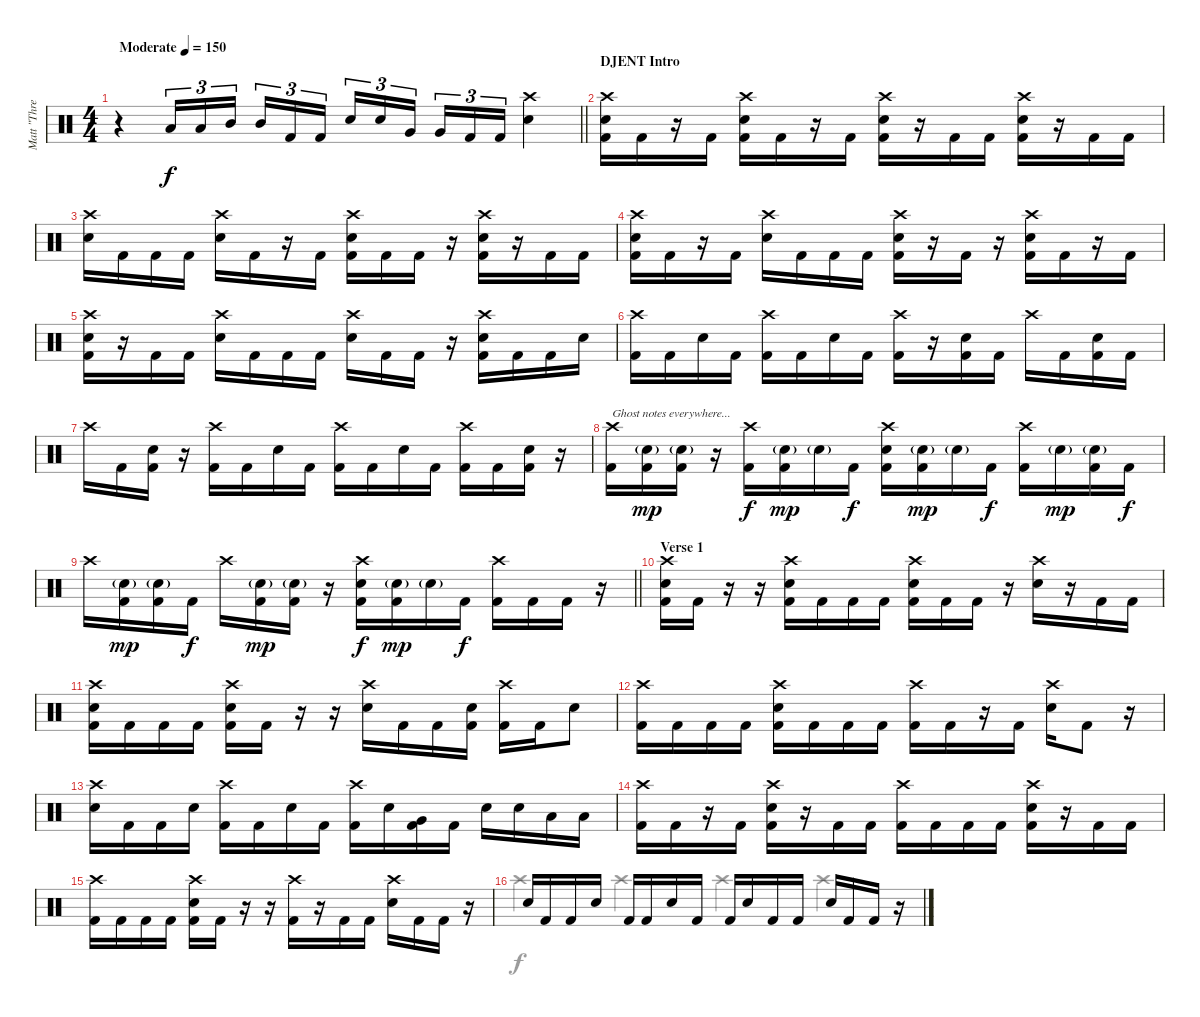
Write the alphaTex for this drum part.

\track ("Matt \"Three Cymbals/Swing\" Halpern" "Matt \"Thre") {instrument percussion}
\staff {score}
\articulation defaults
\voice
\ts (4 4)
\tempo (150 "Moderate")
\clef neutral
\barLineRight lightlight
\ks c
r.4{dy f} "Low Tom (hit)".16{tu (3 2)} "Low Tom (hit)".16{tu (3 2)} "Mid Tom (hit)".16{tu (3 2) beam splitsecondary} "Mid Tom (hit)".16{tu (3 2)} "Kick (hit) 2".16{tu (3 2)} "Kick (hit) 2".16{tu (3 2)} "Snare (hit) 2".16{tu (3 2)} "Snare (hit) 2".16{tu (3 2)} "Very Low Tom (hit)".16{tu (3 2) beam splitsecondary} "Very Low Tom (hit)".16{tu (3 2)} "Kick (hit) 2".16{tu (3 2)} "Kick (hit) 2".16{tu (3 2)} ("Crash high (hit)" "Snare (hit) 2").4 |
\section ("" "DJENT Intro")
("Crash high (hit)" "Snare (hit) 2" "Kick (hit) 2").16 "Kick (hit) 2".16 r.16 "Kick (hit) 2".16 ("Crash high (hit)" "Snare (hit) 2" "Kick (hit) 2").16 "Kick (hit) 2".16 r.16 "Kick (hit) 2".16 ("Crash high (hit)" "Snare (hit) 2" "Kick (hit) 2").16 r.16 "Kick (hit) 2".16 "Kick (hit) 2".16 ("Crash high (hit)" "Snare (hit) 2" "Kick (hit) 2").16 r.16 "Kick (hit) 2".16 "Kick (hit) 2".16 |
("Crash high (hit)" "Snare (hit) 2").16 "Kick (hit) 2".16 "Kick (hit) 2".16 "Kick (hit) 2".16 ("Crash high (hit)" "Snare (hit) 2").16 "Kick (hit) 2".16 r.16 "Kick (hit) 2".16 ("Crash high (hit)" "Snare (hit) 2" "Kick (hit) 2").16 "Kick (hit) 2".16 "Kick (hit) 2".16 r.16 ("Crash high (hit)" "Snare (hit) 2" "Kick (hit) 2").16 r.16 "Kick (hit) 2".16 "Kick (hit) 2".16 |
("Crash high (hit)" "Snare (hit) 2" "Kick (hit) 2").16 "Kick (hit) 2".16 r.16 "Kick (hit) 2".16 ("Crash high (hit)" "Snare (hit) 2").16 "Kick (hit) 2".16 "Kick (hit) 2".16 "Kick (hit) 2".16 ("Crash high (hit)" "Snare (hit) 2" "Kick (hit) 2").16 r.16 "Kick (hit) 2".16 r.16 ("Crash high (hit)" "Snare (hit) 2" "Kick (hit) 2").16 "Kick (hit) 2".16 r.16 "Kick (hit) 2".16 |
("Crash high (hit)" "Snare (hit) 2" "Kick (hit) 2").16 r.16 "Kick (hit) 2".16 "Kick (hit) 2".16 ("Crash high (hit)" "Snare (hit) 2").16 "Kick (hit) 2".16 "Kick (hit) 2".16 "Kick (hit) 2".16 ("Crash high (hit)" "Snare (hit) 2").16 "Kick (hit) 2".16 "Kick (hit) 2".16 r.16 ("Crash high (hit)" "Snare (hit) 2" "Kick (hit) 2").16 "Kick (hit) 2".16 "Kick (hit) 2".16 "Snare (hit) 2".16 |
("Crash high (hit)" "Kick (hit) 2").16 "Kick (hit) 2".16 "Snare (hit) 2".16 "Kick (hit) 2".16 ("Crash high (hit)" "Kick (hit) 2").16 "Kick (hit) 2".16 "Snare (hit) 2".16 "Kick (hit) 2".16 ("Crash high (hit)" "Kick (hit) 2").16 r.16 ("Snare (hit) 2" "Kick (hit) 2").16 "Kick (hit) 2".16 "Crash high (hit)".16 "Kick (hit) 2".16 ("Snare (hit) 2" "Kick (hit) 2").16 "Kick (hit) 2".16 |
"Crash high (hit)".16 "Kick (hit) 2".16 ("Snare (hit) 2" "Kick (hit) 2").16 r.16 ("Crash high (hit)" "Kick (hit) 2").16 "Kick (hit) 2".16 "Snare (hit) 2".16 "Kick (hit) 2".16 ("Crash high (hit)" "Kick (hit) 2").16 "Kick (hit) 2".16 "Snare (hit) 2".16 "Kick (hit) 2".16 ("Crash high (hit)" "Kick (hit) 2").16 "Kick (hit) 2".16 ("Snare (hit) 2" "Kick (hit) 2").16 r.16 |
("Crash high (hit)" "Kick (hit) 2").16{txt "Ghost notes everywhere..."} ("Snare (hit) 2"{g} "Kick (hit) 2").16{dy mp} ("Snare (hit) 2"{g} "Kick (hit) 2").16 r.16 ("Crash high (hit)" "Kick (hit) 2").16{dy f} ("Snare (hit) 2"{g} "Kick (hit) 2").16{dy mp} "Snare (hit) 2"{g}.16 "Kick (hit) 2".16{dy f} ("Crash high (hit)" "Snare (hit) 2" "Kick (hit) 2").16 ("Snare (hit) 2"{g} "Kick (hit) 2").16{dy mp} "Snare (hit) 2"{g}.16 "Kick (hit) 2".16{dy f} ("Crash high (hit)" "Kick (hit) 2").16 "Snare (hit) 2"{g}.16{dy mp} ("Snare (hit) 2"{g} "Kick (hit) 2").16 "Kick (hit) 2".16{dy f} |
\barLineRight lightlight "Crash high (hit)".16
("Snare (hit) 2"{g} "Kick (hit) 2").16{dy mp} ("Snare (hit) 2"{g} "Kick (hit) 2").16 "Kick (hit) 2".16{dy f} "Crash high (hit)".16 ("Snare (hit) 2"{g} "Kick (hit) 2").16{dy mp} ("Snare (hit) 2"{g} "Kick (hit) 2").16 r.16 ("Crash high (hit)" "Snare (hit) 2" "Kick (hit) 2").16{dy f} ("Snare (hit) 2"{g} "Kick (hit) 2").16{dy mp} "Snare (hit) 2"{g}.16 "Kick (hit) 2".16{dy f} ("Crash high (hit)" "Kick (hit) 2").16 "Kick (hit) 2".16 "Kick (hit) 2".16 r.16 |
\section ("" "Verse 1")
("Crash high (hit)" "Snare (hit) 2" "Kick (hit) 2").16 "Kick (hit) 2".16 r.16 r.16 ("Crash high (hit)" "Snare (hit) 2" "Kick (hit) 2").16 "Kick (hit) 2".16 "Kick (hit) 2".16 "Kick (hit) 2".16 ("Crash high (hit)" "Snare (hit) 2" "Kick (hit) 2").16 "Kick (hit) 2".16 "Kick (hit) 2".16 r.16 ("Crash high (hit)" "Snare (hit) 2").16 r.16 "Kick (hit) 2".16 "Kick (hit) 2".16 |
("Crash high (hit)" "Snare (hit) 2" "Kick (hit) 2").16 "Kick (hit) 2".16 "Kick (hit) 2".16 "Kick (hit) 2".16 ("Crash high (hit)" "Snare (hit) 2" "Kick (hit) 2").16 "Kick (hit) 2".16 r.16 r.16 ("Crash high (hit)" "Snare (hit) 2").16 "Kick (hit) 2".16 "Kick (hit) 2".16 ("Snare (hit) 2" "Kick (hit) 2").16 ("Crash high (hit)" "Kick (hit) 2").16 "Kick (hit) 2".16 "Snare (hit) 2".8 |
("Crash high (hit)" "Kick (hit) 2").16 "Kick (hit) 2".16 "Kick (hit) 2".16 "Kick (hit) 2".16 ("Crash high (hit)" "Snare (hit) 2" "Kick (hit) 2").16 "Kick (hit) 2".16 "Kick (hit) 2".16 "Kick (hit) 2".16 ("Crash high (hit)" "Kick (hit) 2").16 "Kick (hit) 2".16 r.16 "Kick (hit) 2".16 ("Crash high (hit)" "Snare (hit) 2").16 "Kick (hit) 2".8 r.16 |
("Crash high (hit)" "Snare (hit) 2").16 "Kick (hit) 2".16 "Kick (hit) 2".16 "Snare (hit) 2".16 ("Crash high (hit)" "Kick (hit) 2").16 "Kick (hit) 2".16 "Snare (hit) 2".16 "Kick (hit) 2".16 ("Crash high (hit)" "Kick (hit) 2").16 "Snare (hit) 2".16 ("Very Low Tom (hit)" "Kick (hit) 2").16 "Kick (hit) 2".16 "Snare (hit) 2".16 "Snare (hit) 2".16 "Low Floor Tom (hit)".16 "Low Floor Tom (hit)".16 |
("Crash high (hit)" "Kick (hit) 2").16 "Kick (hit) 2".16 r.16 "Kick (hit) 2".16 ("Crash high (hit)" "Snare (hit) 2" "Kick (hit) 2").16 r.16 "Kick (hit) 2".16 "Kick (hit) 2".16 ("Crash high (hit)" "Kick (hit) 2").16 "Kick (hit) 2".16 "Kick (hit) 2".16 "Kick (hit) 2".16 ("Crash high (hit)" "Snare (hit) 2" "Kick (hit) 2").16 r.16 "Kick (hit) 2".16 "Kick (hit) 2".16 |
("Crash high (hit)" "Kick (hit) 2").16 "Kick (hit) 2".16 "Kick (hit) 2".16 "Kick (hit) 2".16 ("Crash high (hit)" "Snare (hit) 2" "Kick (hit) 2").16 "Kick (hit) 2".16 r.16 r.16 ("Crash high (hit)" "Kick (hit) 2").16 r.16 "Kick (hit) 2".16 "Kick (hit) 2".16 ("Crash high (hit)" "Snare (hit) 2").16 "Kick (hit) 2".16 "Kick (hit) 2".16 r.16 |
"Snare (hit) 2".16 "Kick (hit) 2".16 "Kick (hit) 2".16 "Snare (hit) 2".16 "Kick (hit) 2".16 "Kick (hit) 2".16 "Snare (hit) 2".16 "Kick (hit) 2".16 "Kick (hit) 2".16 "Snare (hit) 2".16 "Kick (hit) 2".16 "Kick (hit) 2".16 "Snare (hit) 2".16 "Kick (hit) 2".16 "Kick (hit) 2".16 r.16
\voice
\clef neutral
\ottava regular
\simile none
\barLineRight lightlight
\ks c
|
|
|
|
|
|
|
|
\barLineRight lightlight
|
|
|
|
|
|
|
"Crash high (hit)".4 "Crash high (hit)".4 "Crash high (hit)".4 "Crash high (hit)".4
